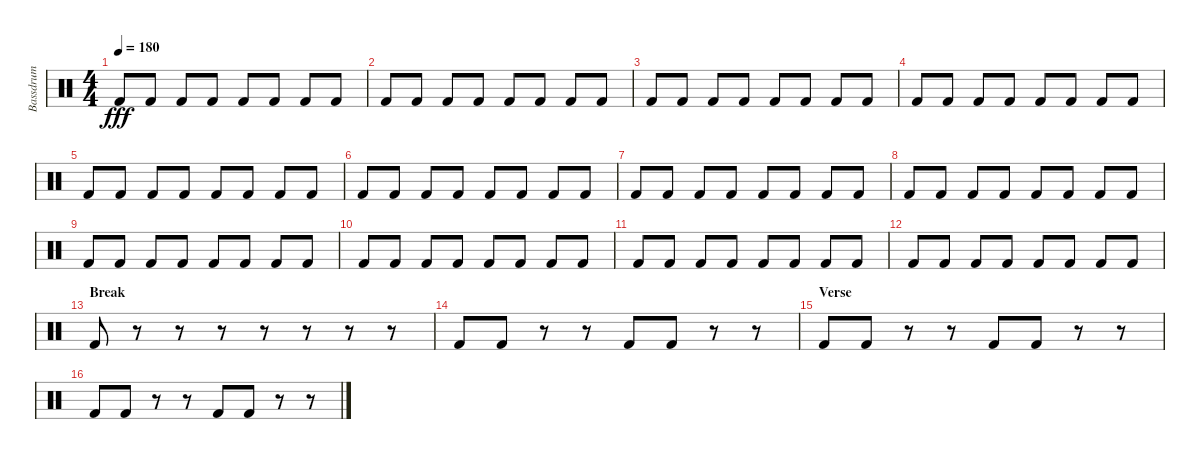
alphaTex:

\track ("Bassdrum" "Bassdrum") {instrument percussion}
\staff {score}
\articulation defaults
\ts (4 4)
\tempo 180
\clef neutral
\ks c "Kick (hit) 2".8{dy fff} "Kick (hit) 2".8 "Kick (hit) 2".8 "Kick (hit) 2".8 "Kick (hit) 2".8 "Kick (hit) 2".8 "Kick (hit) 2".8 "Kick (hit) 2".8
|
"Kick (hit) 2".8 "Kick (hit) 2".8 "Kick (hit) 2".8 "Kick (hit) 2".8 "Kick (hit) 2".8 "Kick (hit) 2".8 "Kick (hit) 2".8 "Kick (hit) 2".8 |
"Kick (hit) 2".8 "Kick (hit) 2".8 "Kick (hit) 2".8 "Kick (hit) 2".8 "Kick (hit) 2".8 "Kick (hit) 2".8 "Kick (hit) 2".8 "Kick (hit) 2".8 |
"Kick (hit) 2".8 "Kick (hit) 2".8 "Kick (hit) 2".8 "Kick (hit) 2".8 "Kick (hit) 2".8 "Kick (hit) 2".8 "Kick (hit) 2".8 "Kick (hit) 2".8 |
"Kick (hit) 2".8 "Kick (hit) 2".8 "Kick (hit) 2".8 "Kick (hit) 2".8 "Kick (hit) 2".8 "Kick (hit) 2".8 "Kick (hit) 2".8 "Kick (hit) 2".8 |
"Kick (hit) 2".8 "Kick (hit) 2".8 "Kick (hit) 2".8 "Kick (hit) 2".8 "Kick (hit) 2".8 "Kick (hit) 2".8 "Kick (hit) 2".8 "Kick (hit) 2".8 |
"Kick (hit) 2".8 "Kick (hit) 2".8 "Kick (hit) 2".8 "Kick (hit) 2".8 "Kick (hit) 2".8 "Kick (hit) 2".8 "Kick (hit) 2".8 "Kick (hit) 2".8 |
"Kick (hit) 2".8 "Kick (hit) 2".8 "Kick (hit) 2".8 "Kick (hit) 2".8 "Kick (hit) 2".8 "Kick (hit) 2".8 "Kick (hit) 2".8 "Kick (hit) 2".8 |
"Kick (hit) 2".8 "Kick (hit) 2".8 "Kick (hit) 2".8 "Kick (hit) 2".8 "Kick (hit) 2".8 "Kick (hit) 2".8 "Kick (hit) 2".8 "Kick (hit) 2".8 |
"Kick (hit) 2".8 "Kick (hit) 2".8 "Kick (hit) 2".8 "Kick (hit) 2".8 "Kick (hit) 2".8 "Kick (hit) 2".8 "Kick (hit) 2".8 "Kick (hit) 2".8 |
"Kick (hit) 2".8 "Kick (hit) 2".8 "Kick (hit) 2".8 "Kick (hit) 2".8 "Kick (hit) 2".8 "Kick (hit) 2".8 "Kick (hit) 2".8 "Kick (hit) 2".8 |
"Kick (hit) 2".8 "Kick (hit) 2".8 "Kick (hit) 2".8 "Kick (hit) 2".8 "Kick (hit) 2".8 "Kick (hit) 2".8 "Kick (hit) 2".8 "Kick (hit) 2".8 |
\section ("" "Break")
"Kick (hit) 2".8 r.8 r.8 r.8 r.8 r.8 r.8 r.8 |
"Kick (hit) 2".8 "Kick (hit) 2".8 r.8 r.8 "Kick (hit) 2".8 "Kick (hit) 2".8 r.8 r.8 |
\section ("" "Verse")
"Kick (hit) 2".8 "Kick (hit) 2".8 r.8 r.8 "Kick (hit) 2".8 "Kick (hit) 2".8 r.8 r.8 |
"Kick (hit) 2".8 "Kick (hit) 2".8 r.8 r.8 "Kick (hit) 2".8 "Kick (hit) 2".8 r.8 r.8
